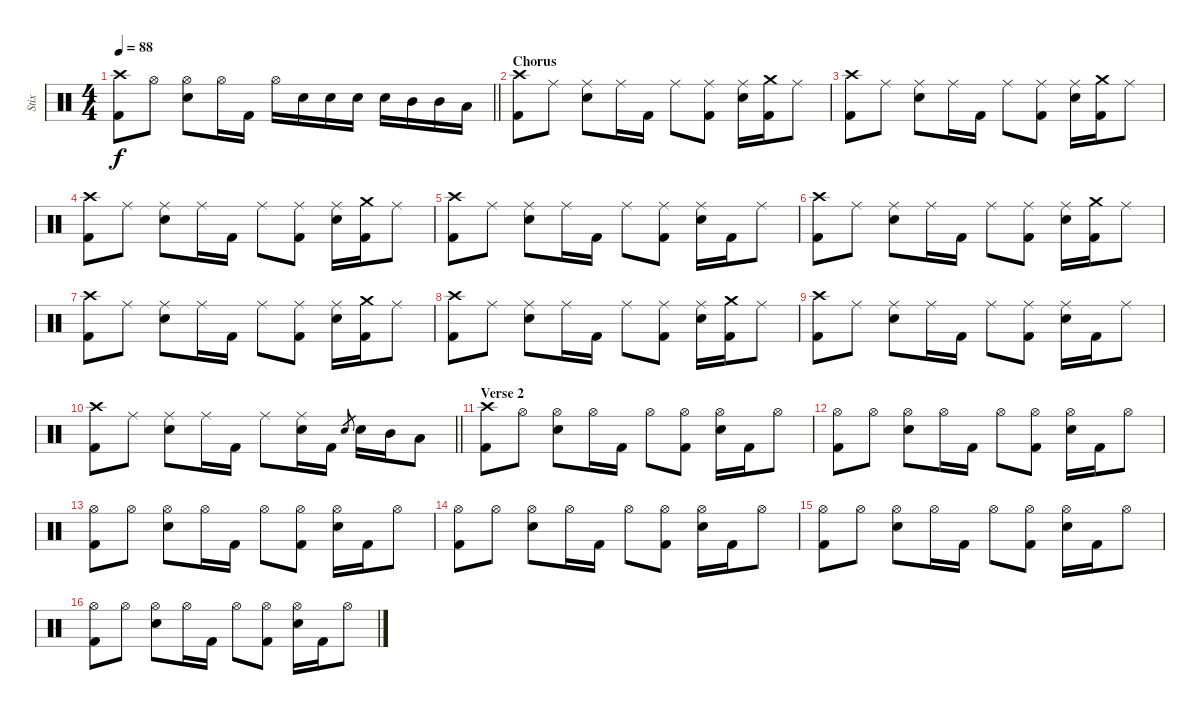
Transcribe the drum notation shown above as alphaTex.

\track ("Stix" "Stix") {instrument percussion}
\staff {score}
\articulation defaults
\ts (4 4)
\tempo 88
\clef neutral
\barLineRight lightlight
\ks c
("Crash high (hit)" "Kick (hit) 2").8{dy f} "Hi-Hat (open)".8 ("Hi-Hat (open)" "Electric Snare (hit)").8 "Hi-Hat (open)".16 "Kick (hit) 2".16 "Hi-Hat (open)".16 "Electric Snare (hit)".16 "Electric Snare (hit)".16 "Electric Snare (hit)".16 "Electric Snare (hit)".16 "Mid Tom (hit)".16 "Mid Tom (hit)".16 "Low Tom (hit)".16 |
\section ("" "Chorus")
("Crash high (hit)" "Kick (hit) 2").8 "Ride (middle)".8 ("Ride (middle)" "Electric Snare (hit)").8 "Ride (middle)".16 "Kick (hit) 2".16 "Ride (middle)".8 ("Ride (middle)" "Kick (hit) 2").8 ("Ride (middle)" "Electric Snare (hit)").16 ("Crash medium (hit)" "Kick (hit) 2").16 "Ride (middle)".8 |
("Crash high (hit)" "Kick (hit) 2").8 "Ride (middle)".8 ("Ride (middle)" "Electric Snare (hit)").8 "Ride (middle)".16 "Kick (hit) 2".16 "Ride (middle)".8 ("Ride (middle)" "Kick (hit) 2").8 ("Ride (middle)" "Electric Snare (hit)").16 ("Crash medium (hit)" "Kick (hit) 2").16 "Ride (middle)".8 |
("Crash high (hit)" "Kick (hit) 2").8 "Ride (middle)".8 ("Ride (middle)" "Electric Snare (hit)").8 "Ride (middle)".16 "Kick (hit) 2".16 "Ride (middle)".8 ("Ride (middle)" "Kick (hit) 2").8 ("Ride (middle)" "Electric Snare (hit)").16 ("Crash medium (hit)" "Kick (hit) 2").16 "Ride (middle)".8 |
("Crash high (hit)" "Kick (hit) 2").8 "Ride (middle)".8 ("Ride (middle)" "Electric Snare (hit)").8 "Ride (middle)".16 "Kick (hit) 2".16 "Ride (middle)".8 ("Ride (middle)" "Kick (hit) 2").8 ("Ride (middle)" "Electric Snare (hit)").16 "Kick (hit) 2".16 "Ride (middle)".8 |
("Crash high (hit)" "Kick (hit) 2").8 "Ride (middle)".8 ("Ride (middle)" "Electric Snare (hit)").8 "Ride (middle)".16 "Kick (hit) 2".16 "Ride (middle)".8 ("Ride (middle)" "Kick (hit) 2").8 ("Ride (middle)" "Electric Snare (hit)").16 ("Crash medium (hit)" "Kick (hit) 2").16 "Ride (middle)".8 |
("Crash high (hit)" "Kick (hit) 2").8 "Ride (middle)".8 ("Ride (middle)" "Electric Snare (hit)").8 "Ride (middle)".16 "Kick (hit) 2".16 "Ride (middle)".8 ("Ride (middle)" "Kick (hit) 2").8 ("Ride (middle)" "Electric Snare (hit)").16 ("Crash medium (hit)" "Kick (hit) 2").16 "Ride (middle)".8 |
("Crash high (hit)" "Kick (hit) 2").8 "Ride (middle)".8 ("Ride (middle)" "Electric Snare (hit)").8 "Ride (middle)".16 "Kick (hit) 2".16 "Ride (middle)".8 ("Ride (middle)" "Kick (hit) 2").8 ("Ride (middle)" "Electric Snare (hit)").16 ("Crash medium (hit)" "Kick (hit) 2").16 "Ride (middle)".8 |
("Crash high (hit)" "Kick (hit) 2").8 "Ride (middle)".8 ("Ride (middle)" "Electric Snare (hit)").8 "Ride (middle)".16 "Kick (hit) 2".16 "Ride (middle)".8 ("Ride (middle)" "Kick (hit) 2").8 ("Ride (middle)" "Electric Snare (hit)").16 "Kick (hit) 2".16 "Ride (middle)".8 |
\barLineRight lightlight
("Crash high (hit)" "Kick (hit) 2").8 "Ride (middle)".8 ("Ride (middle)" "Electric Snare (hit)").8 "Ride (middle)".16 "Kick (hit) 2".16 "Ride (middle)".8 ("Ride (middle)" "Electric Snare (hit)").16 "Kick (hit) 2".16 "Electric Snare (hit)".8{gr} "Electric Snare (hit)".16 "Mid Tom (hit)".16 "Low Tom (hit)".8 |
\section ("" "Verse 2")
("Crash high (hit)" "Kick (hit) 2").8 "Hi-Hat (open)".8 ("Hi-Hat (open)" "Electric Snare (hit)").8 "Hi-Hat (open)".16 "Kick (hit) 2".16 "Hi-Hat (open)".8 ("Hi-Hat (open)" "Kick (hit) 2").8 ("Hi-Hat (open)" "Electric Snare (hit)").16 "Kick (hit) 2".16 "Hi-Hat (open)".8 |
("Hi-Hat (open)" "Kick (hit) 2").8 "Hi-Hat (open)".8 ("Hi-Hat (open)" "Electric Snare (hit)").8 "Hi-Hat (open)".16 "Kick (hit) 2".16 "Hi-Hat (open)".8 ("Hi-Hat (open)" "Kick (hit) 2").8 ("Hi-Hat (open)" "Electric Snare (hit)").16 "Kick (hit) 2".16 "Hi-Hat (open)".8 |
("Hi-Hat (open)" "Kick (hit) 2").8 "Hi-Hat (open)".8 ("Hi-Hat (open)" "Electric Snare (hit)").8 "Hi-Hat (open)".16 "Kick (hit) 2".16 "Hi-Hat (open)".8 ("Hi-Hat (open)" "Kick (hit) 2").8 ("Hi-Hat (open)" "Electric Snare (hit)").16 "Kick (hit) 2".16 "Hi-Hat (open)".8 |
("Hi-Hat (open)" "Kick (hit) 2").8 "Hi-Hat (open)".8 ("Hi-Hat (open)" "Electric Snare (hit)").8 "Hi-Hat (open)".16 "Kick (hit) 2".16 "Hi-Hat (open)".8 ("Hi-Hat (open)" "Kick (hit) 2").8 ("Hi-Hat (open)" "Electric Snare (hit)").16 "Kick (hit) 2".16 "Hi-Hat (open)".8 |
("Hi-Hat (open)" "Kick (hit) 2").8 "Hi-Hat (open)".8 ("Hi-Hat (open)" "Electric Snare (hit)").8 "Hi-Hat (open)".16 "Kick (hit) 2".16 "Hi-Hat (open)".8 ("Hi-Hat (open)" "Kick (hit) 2").8 ("Hi-Hat (open)" "Electric Snare (hit)").16 "Kick (hit) 2".16 "Hi-Hat (open)".8 |
("Hi-Hat (open)" "Kick (hit) 2").8 "Hi-Hat (open)".8 ("Hi-Hat (open)" "Electric Snare (hit)").8 "Hi-Hat (open)".16 "Kick (hit) 2".16 "Hi-Hat (open)".8 ("Hi-Hat (open)" "Kick (hit) 2").8 ("Hi-Hat (open)" "Electric Snare (hit)").16 "Kick (hit) 2".16 "Hi-Hat (open)".8
